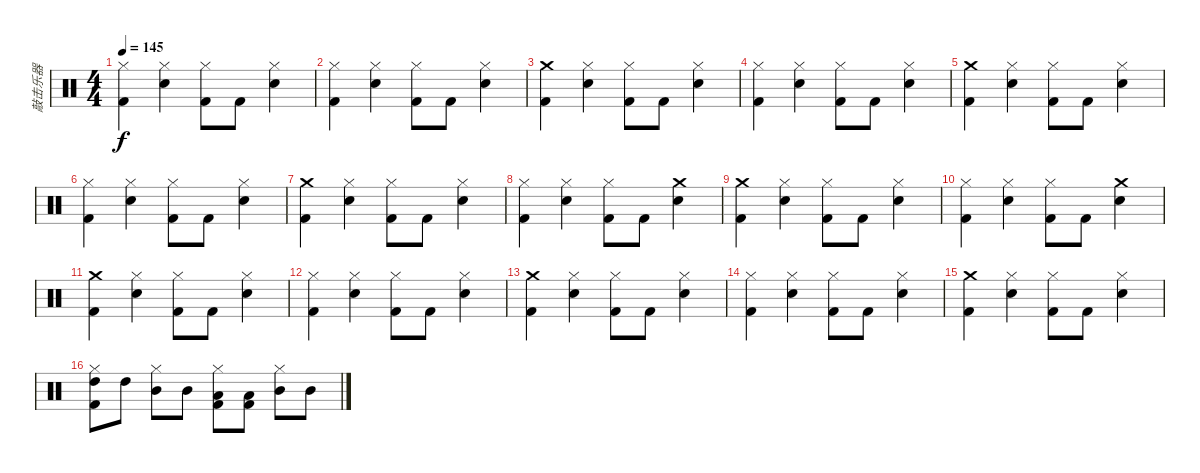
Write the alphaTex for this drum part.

\track ("敲击乐器" "敲击乐器") {instrument percussion}
\staff {score}
\articulation defaults
\ts (4 4)
\tempo 145
\clef neutral
\ks c
("Hi-Hat (closed)" "Kick (hit) 2").4{dy f} ("Hi-Hat (closed)" "Electric Snare (hit)").4 ("Hi-Hat (closed)" "Kick (hit) 2").8 "Kick (hit) 2".8 ("Hi-Hat (closed)" "Electric Snare (hit)").4 |
("Hi-Hat (closed)" "Kick (hit) 2").4 ("Hi-Hat (closed)" "Electric Snare (hit)").4 ("Hi-Hat (closed)" "Kick (hit) 2").8 "Kick (hit) 2".8 ("Hi-Hat (closed)" "Electric Snare (hit)").4 |
("Crash medium (hit)" "Kick (hit) 2").4 ("Hi-Hat (closed)" "Electric Snare (hit)").4 ("Hi-Hat (closed)" "Kick (hit) 2").8 "Kick (hit) 2".8 ("Hi-Hat (closed)" "Electric Snare (hit)").4 |
("Hi-Hat (closed)" "Kick (hit) 2").4 ("Hi-Hat (closed)" "Electric Snare (hit)").4 ("Hi-Hat (closed)" "Kick (hit) 2").8 "Kick (hit) 2".8 ("Hi-Hat (closed)" "Electric Snare (hit)").4 |
("Crash medium (hit)" "Kick (hit) 2").4 ("Hi-Hat (closed)" "Electric Snare (hit)").4 ("Hi-Hat (closed)" "Kick (hit) 2").8 "Kick (hit) 2".8 ("Hi-Hat (closed)" "Electric Snare (hit)").4 |
("Hi-Hat (closed)" "Kick (hit) 2").4 ("Hi-Hat (closed)" "Electric Snare (hit)").4 ("Hi-Hat (closed)" "Kick (hit) 2").8 "Kick (hit) 2".8 ("Hi-Hat (closed)" "Electric Snare (hit)").4 |
("Crash medium (hit)" "Kick (hit) 2").4 ("Hi-Hat (closed)" "Electric Snare (hit)").4 ("Hi-Hat (closed)" "Kick (hit) 2").8 "Kick (hit) 2".8 ("Hi-Hat (closed)" "Electric Snare (hit)").4 |
("Hi-Hat (closed)" "Kick (hit) 2").4 ("Hi-Hat (closed)" "Electric Snare (hit)").4 ("Hi-Hat (closed)" "Kick (hit) 2").8 "Kick (hit) 2".8 ("Crash medium (hit)" "Electric Snare (hit)").4 |
("Crash medium (hit)" "Kick (hit) 2").4 ("Hi-Hat (closed)" "Electric Snare (hit)").4 ("Hi-Hat (closed)" "Kick (hit) 2").8 "Kick (hit) 2".8 ("Hi-Hat (closed)" "Electric Snare (hit)").4 |
("Hi-Hat (closed)" "Kick (hit) 2").4 ("Hi-Hat (closed)" "Electric Snare (hit)").4 ("Hi-Hat (closed)" "Kick (hit) 2").8 "Kick (hit) 2".8 ("Crash medium (hit)" "Electric Snare (hit)").4 |
("Crash medium (hit)" "Kick (hit) 2").4 ("Hi-Hat (closed)" "Electric Snare (hit)").4 ("Hi-Hat (closed)" "Kick (hit) 2").8 "Kick (hit) 2".8 ("Hi-Hat (closed)" "Electric Snare (hit)").4 |
("Hi-Hat (closed)" "Kick (hit) 2").4 ("Hi-Hat (closed)" "Electric Snare (hit)").4 ("Hi-Hat (closed)" "Kick (hit) 2").8 "Kick (hit) 2".8 ("Hi-Hat (closed)" "Electric Snare (hit)").4 |
("Crash medium (hit)" "Kick (hit) 2").4 ("Hi-Hat (closed)" "Electric Snare (hit)").4 ("Hi-Hat (closed)" "Kick (hit) 2").8 "Kick (hit) 2".8 ("Hi-Hat (closed)" "Electric Snare (hit)").4 |
("Hi-Hat (closed)" "Kick (hit) 2").4 ("Hi-Hat (closed)" "Electric Snare (hit)").4 ("Hi-Hat (closed)" "Kick (hit) 2").8 "Kick (hit) 2".8 ("Hi-Hat (closed)" "Electric Snare (hit)").4 |
("Crash medium (hit)" "Kick (hit) 2").4 ("Hi-Hat (closed)" "Electric Snare (hit)").4 ("Hi-Hat (closed)" "Kick (hit) 2").8 "Kick (hit) 2".8 ("Hi-Hat (closed)" "Electric Snare (hit)").4 |
("Hi-Hat (closed)" "High Tom (hit)" "Kick (hit) 2").8 "High Tom (hit)".8 ("Hi-Hat (closed)" "Mid Tom (hit)").8 "Mid Tom (hit)".8 ("Hi-Hat (closed)" "Low Tom (hit)" "Kick (hit) 2").8 ("Low Tom (hit)" "Kick (hit) 2").8 ("Hi-Hat (closed)" "Mid Tom (hit)").8 "Mid Tom (hit)".8
